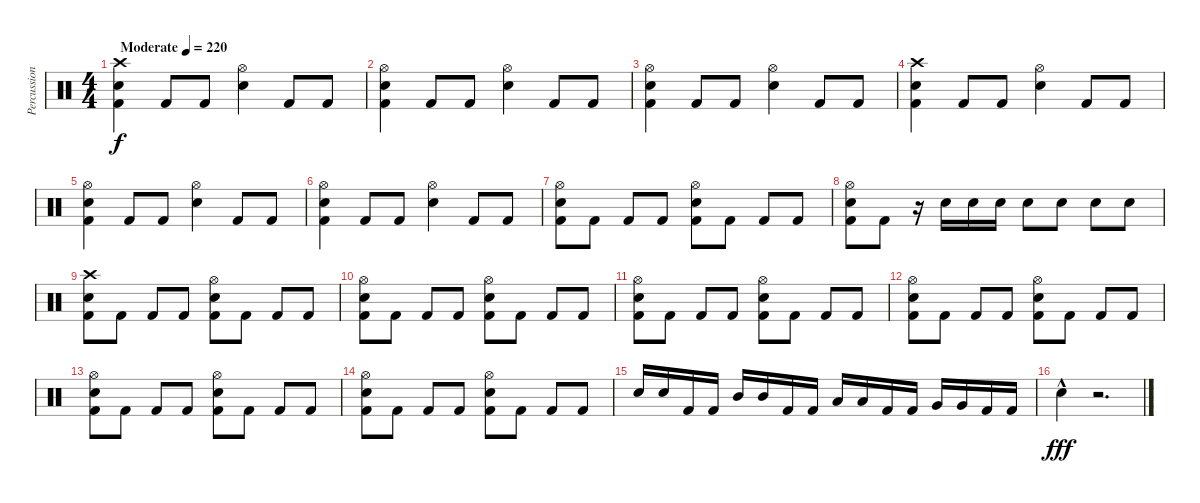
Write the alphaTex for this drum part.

\track ("Percussion" "Percussion") {instrument percussion}
\staff {score}
\articulation defaults
\ts (4 4)
\tempo (220 "Moderate")
\clef neutral
\ks c
("Crash high (hit)" "Electric Snare (hit)" "Kick (hit) 2").4{dy f} "Kick (hit) 2".8 "Kick (hit) 2".8 ("Hi-Hat (open)" "Electric Snare (hit)").4 "Kick (hit) 2".8 "Kick (hit) 2".8 |
("Hi-Hat (open)" "Electric Snare (hit)" "Kick (hit) 2").4 "Kick (hit) 2".8 "Kick (hit) 2".8 ("Hi-Hat (open)" "Electric Snare (hit)").4 "Kick (hit) 2".8 "Kick (hit) 2".8 |
("Hi-Hat (open)" "Electric Snare (hit)" "Kick (hit) 2").4 "Kick (hit) 2".8 "Kick (hit) 2".8 ("Hi-Hat (open)" "Electric Snare (hit)").4 "Kick (hit) 2".8 "Kick (hit) 2".8 |
("Crash high (hit)" "Electric Snare (hit)" "Kick (hit) 2").4 "Kick (hit) 2".8 "Kick (hit) 2".8 ("Hi-Hat (open)" "Electric Snare (hit)").4 "Kick (hit) 2".8 "Kick (hit) 2".8 |
("Hi-Hat (open)" "Electric Snare (hit)" "Kick (hit) 2").4 "Kick (hit) 2".8 "Kick (hit) 2".8 ("Hi-Hat (open)" "Electric Snare (hit)").4 "Kick (hit) 2".8 "Kick (hit) 2".8 |
("Hi-Hat (open)" "Electric Snare (hit)" "Kick (hit) 2").4 "Kick (hit) 2".8 "Kick (hit) 2".8 ("Hi-Hat (open)" "Electric Snare (hit)").4 "Kick (hit) 2".8 "Kick (hit) 2".8 |
("Hi-Hat (open)" "Electric Snare (hit)" "Kick (hit) 2").8 "Kick (hit) 2".8 "Kick (hit) 2".8 "Kick (hit) 2".8 ("Hi-Hat (open)" "Electric Snare (hit)" "Kick (hit) 2").8 "Kick (hit) 2".8 "Kick (hit) 2".8 "Kick (hit) 2".8 |
("Hi-Hat (open)" "Electric Snare (hit)" "Kick (hit) 2").8 "Kick (hit) 2".8 r.16 "Electric Snare (hit)".16 "Electric Snare (hit)".16 "Electric Snare (hit)".16 "Electric Snare (hit)".8 "Electric Snare (hit)".8 "Electric Snare (hit)".8 "Electric Snare (hit)".8 |
("Crash high (hit)" "Electric Snare (hit)" "Kick (hit) 2").8 "Kick (hit) 2".8 "Kick (hit) 2".8 "Kick (hit) 2".8 ("Hi-Hat (open)" "Electric Snare (hit)" "Kick (hit) 2").8 "Kick (hit) 2".8 "Kick (hit) 2".8 "Kick (hit) 2".8 |
("Hi-Hat (open)" "Electric Snare (hit)" "Kick (hit) 2").8 "Kick (hit) 2".8 "Kick (hit) 2".8 "Kick (hit) 2".8 ("Hi-Hat (open)" "Electric Snare (hit)" "Kick (hit) 2").8 "Kick (hit) 2".8 "Kick (hit) 2".8 "Kick (hit) 2".8 |
("Hi-Hat (open)" "Electric Snare (hit)" "Kick (hit) 2").8 "Kick (hit) 2".8 "Kick (hit) 2".8 "Kick (hit) 2".8 ("Hi-Hat (open)" "Electric Snare (hit)" "Kick (hit) 2").8 "Kick (hit) 2".8 "Kick (hit) 2".8 "Kick (hit) 2".8 |
("Hi-Hat (open)" "Electric Snare (hit)" "Kick (hit) 2").8 "Kick (hit) 2".8 "Kick (hit) 2".8 "Kick (hit) 2".8 ("Hi-Hat (open)" "Electric Snare (hit)" "Kick (hit) 2").8 "Kick (hit) 2".8 "Kick (hit) 2".8 "Kick (hit) 2".8 |
("Hi-Hat (open)" "Electric Snare (hit)" "Kick (hit) 2").8 "Kick (hit) 2".8 "Kick (hit) 2".8 "Kick (hit) 2".8 ("Hi-Hat (open)" "Electric Snare (hit)" "Kick (hit) 2").8 "Kick (hit) 2".8 "Kick (hit) 2".8 "Kick (hit) 2".8 |
("Hi-Hat (open)" "Electric Snare (hit)" "Kick (hit) 2").8 "Kick (hit) 2".8 "Kick (hit) 2".8 "Kick (hit) 2".8 ("Hi-Hat (open)" "Electric Snare (hit)" "Kick (hit) 2").8 "Kick (hit) 2".8 "Kick (hit) 2".8 "Kick (hit) 2".8 |
"Electric Snare (hit)".16 "Electric Snare (hit)".16 "Kick (hit) 2".16 "Kick (hit) 2".16 "Mid Tom (hit)".16 "Mid Tom (hit)".16 "Kick (hit) 2".16 "Kick (hit) 2".16 "Low Tom (hit)".16 "Low Tom (hit)".16 "Kick (hit) 2".16 "Kick (hit) 2".16 "Very Low Tom (hit)".16 "Very Low Tom (hit)".16 "Kick (hit) 2".16 "Kick (hit) 2".16 |
"Electric Snare (hit)"{hac}.4{dy fff} r.2{d}
